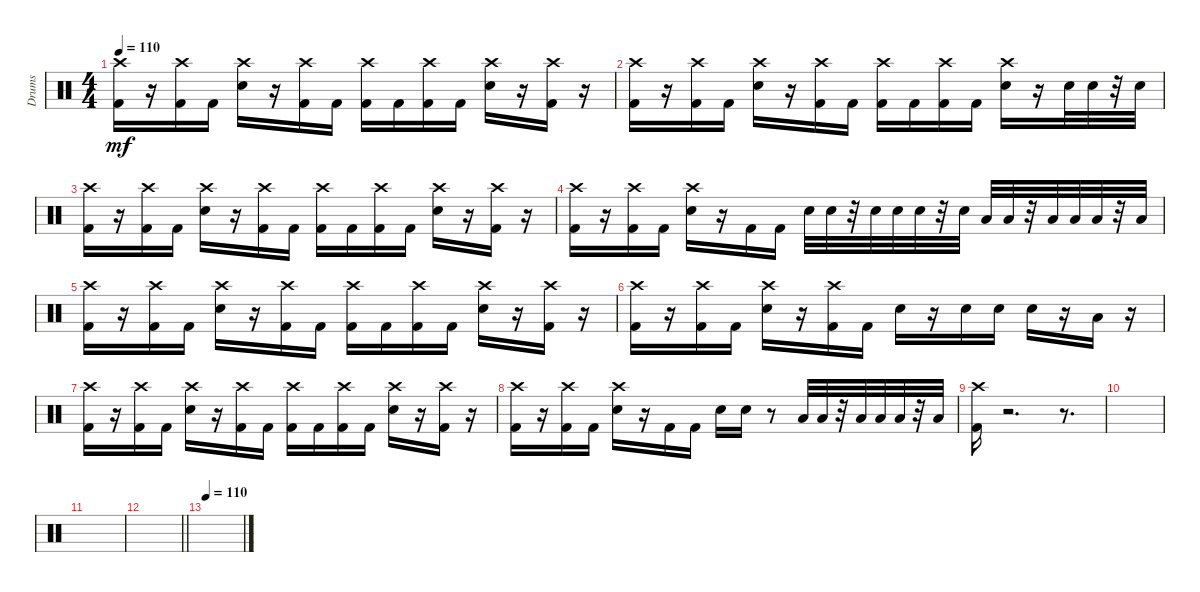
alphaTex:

\track ("Drums" "Drums") {instrument percussion}
\staff {score}
\articulation defaults
\ts (4 4)
\tempo 110
\clef neutral
\ks c
("Crash high (hit)" "Kick (hit) 2").16{dy mf} r.16 ("Kick (hit) 2" "Crash high (hit)").16 "Kick (hit) 2".16 ("Crash high (hit)" "Snare (hit) 2").16 r.16 ("Kick (hit) 2" "Crash high (hit)").16 "Kick (hit) 2".16 ("Crash high (hit)" "Kick (hit) 2").16 "Kick (hit) 2".16 ("Kick (hit) 2" "Crash high (hit)").16 "Kick (hit) 2".16 ("Crash high (hit)" "Snare (hit) 2").16 r.16 ("Kick (hit) 2" "Crash high (hit)").16 r.16 |
("Crash high (hit)" "Kick (hit) 2").16 r.16 ("Kick (hit) 2" "Crash high (hit)").16 "Kick (hit) 2".16 ("Crash high (hit)" "Snare (hit) 2").16 r.16 ("Kick (hit) 2" "Crash high (hit)").16 "Kick (hit) 2".16 ("Crash high (hit)" "Kick (hit) 2").16 "Kick (hit) 2".16 ("Kick (hit) 2" "Crash high (hit)").16 "Kick (hit) 2".16 ("Snare (hit) 2" "Crash high (hit)").16 r.16 "Snare (hit) 2".32 "Snare (hit) 2".32 r.32 "Snare (hit) 2".32 |
("Crash high (hit)" "Kick (hit) 2").16 r.16 ("Kick (hit) 2" "Crash high (hit)").16 "Kick (hit) 2".16 ("Crash high (hit)" "Snare (hit) 2").16 r.16 ("Kick (hit) 2" "Crash high (hit)").16 "Kick (hit) 2".16 ("Crash high (hit)" "Kick (hit) 2").16 "Kick (hit) 2".16 ("Kick (hit) 2" "Crash high (hit)").16 "Kick (hit) 2".16 ("Crash high (hit)" "Snare (hit) 2").16 r.16 ("Kick (hit) 2" "Crash high (hit)").16 r.16 |
("Crash high (hit)" "Kick (hit) 2").16 r.16 ("Kick (hit) 2" "Crash high (hit)").16 "Kick (hit) 2".16 ("Snare (hit) 2" "Crash high (hit)").16 r.16 "Kick (hit) 2".16 "Kick (hit) 2".16 "Snare (hit) 2".32 "Snare (hit) 2".32 r.32 "Snare (hit) 2".32 "Snare (hit) 2".32 "Snare (hit) 2".32 r.32 "Snare (hit) 2".32 "Low Tom (hit)".32 "Low Tom (hit)".32 r.32 "Low Tom (hit)".32 "Low Floor Tom (hit)".32 "Low Floor Tom (hit)".32 r.32 "Low Floor Tom (hit)".32 |
("Crash high (hit)" "Kick (hit) 2").16 r.16 ("Kick (hit) 2" "Crash high (hit)").16 "Kick (hit) 2".16 ("Crash high (hit)" "Snare (hit) 2").16 r.16 ("Kick (hit) 2" "Crash high (hit)").16 "Kick (hit) 2".16 ("Crash high (hit)" "Kick (hit) 2").16 "Kick (hit) 2".16 ("Kick (hit) 2" "Crash high (hit)").16 "Kick (hit) 2".16 ("Crash high (hit)" "Snare (hit) 2").16 r.16 ("Kick (hit) 2" "Crash high (hit)").16 r.16 |
("Crash high (hit)" "Kick (hit) 2").16 r.16 ("Kick (hit) 2" "Crash high (hit)").16 "Kick (hit) 2".16 ("Crash high (hit)" "Snare (hit) 2").16 r.16 ("Kick (hit) 2" "Crash high (hit)").16 "Kick (hit) 2".16 "Snare (hit) 2".16 r.16 "Snare (hit) 2".16 "Snare (hit) 2".16 "Snare (hit) 2".16 r.16 "Low Floor Tom (hit)".16 r.16 |
("Crash high (hit)" "Kick (hit) 2").16 r.16 ("Kick (hit) 2" "Crash high (hit)").16 "Kick (hit) 2".16 ("Crash high (hit)" "Snare (hit) 2").16 r.16 ("Kick (hit) 2" "Crash high (hit)").16 "Kick (hit) 2".16 ("Crash high (hit)" "Kick (hit) 2").16 "Kick (hit) 2".16 ("Kick (hit) 2" "Crash high (hit)").16 "Kick (hit) 2".16 ("Crash high (hit)" "Snare (hit) 2").16 r.16 ("Kick (hit) 2" "Crash high (hit)").16 r.16 |
("Crash high (hit)" "Kick (hit) 2").16 r.16 ("Kick (hit) 2" "Crash high (hit)").16 "Kick (hit) 2".16 ("Crash high (hit)" "Snare (hit) 2").16 r.16 "Kick (hit) 2".16 "Kick (hit) 2".16 "Snare (hit) 2".16 "Snare (hit) 2".16 r.8 "Low Tom (hit)".32 "Low Tom (hit)".32 r.32 "Low Tom (hit)".32 "Low Floor Tom (hit)".32 "Low Floor Tom (hit)".32 r.32 "Low Floor Tom (hit)".32 |
("Kick (hit) 2" "Crash high (hit)").16 r.2{d} r.8{d} |
|
|
\barLineRight lightlight
|
\tempo 110
